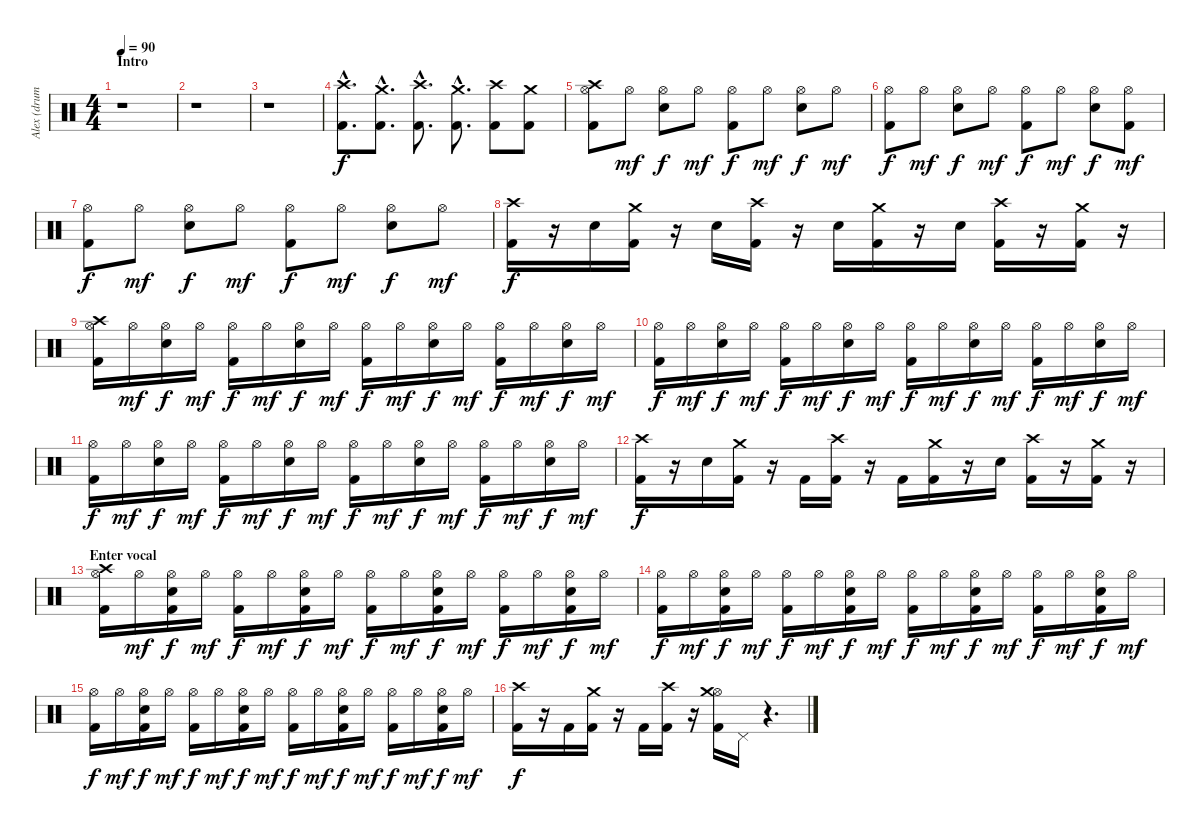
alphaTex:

\track ("Alex (drums)" "Alex (drum") {instrument percussion}
\staff {score}
\articulation defaults
\ts (4 4)
\section ("" "Intro")
\tempo 90
\clef neutral
\ks c
r.1{dy f} |
r.1 |
r.1 |
("Kick (hit) 2"{hac} "Crash high (hit)"{hac}).8{d} ("Kick (hit) 2"{hac} "Crash medium (hit)"{hac}).8{d} ("Kick (hit) 2"{hac} "Crash high (hit)"{hac}).8{d} ("Kick (hit) 2"{hac} "Crash medium (hit)"{hac}).8{d} ("Kick (hit) 2" "Crash high (hit)").8 ("Kick (hit) 2" "Crash medium (hit)").8 |
("Hi-Hat (open)" "Kick (hit) 2" "Crash high (hit)").8 "Hi-Hat (open)".8{dy mf} ("Hi-Hat (open)" "Snare (hit) 2").8{dy f} "Hi-Hat (open)".8{dy mf} ("Hi-Hat (open)" "Kick (hit) 2").8{dy f} "Hi-Hat (open)".8{dy mf} ("Hi-Hat (open)" "Snare (hit) 2").8{dy f} "Hi-Hat (open)".8{dy mf} |
("Hi-Hat (open)" "Kick (hit) 2").8{dy f} "Hi-Hat (open)".8{dy mf} ("Hi-Hat (open)" "Snare (hit) 2").8{dy f} "Hi-Hat (open)".8{dy mf} ("Hi-Hat (open)" "Kick (hit) 2").8{dy f} "Hi-Hat (open)".8{dy mf} ("Hi-Hat (open)" "Snare (hit) 2").8{dy f} ("Hi-Hat (open)" "Kick (hit) 2").8{dy mf} |
("Hi-Hat (open)" "Kick (hit) 2").8{dy f} "Hi-Hat (open)".8{dy mf} ("Hi-Hat (open)" "Snare (hit) 2").8{dy f} "Hi-Hat (open)".8{dy mf} ("Hi-Hat (open)" "Kick (hit) 2").8{dy f} "Hi-Hat (open)".8{dy mf} ("Hi-Hat (open)" "Snare (hit) 2").8{dy f} "Hi-Hat (open)".8{dy mf} |
("Kick (hit) 2" "Crash high (hit)").16{dy f} r.16 "Snare (hit) 2".16 ("Kick (hit) 2" "Crash medium (hit)").16 r.16 "Snare (hit) 2".16 ("Kick (hit) 2" "Crash high (hit)").16 r.16 "Snare (hit) 2".16 ("Kick (hit) 2" "Crash medium (hit)").16 r.16 "Snare (hit) 2".16 ("Kick (hit) 2" "Crash high (hit)").16 r.16 ("Kick (hit) 2" "Crash medium (hit)").16 r.16 |
("Hi-Hat (open)" "Kick (hit) 2" "Crash high (hit)").16 "Hi-Hat (open)".16{dy mf} ("Hi-Hat (open)" "Snare (hit) 2").16{dy f} "Hi-Hat (open)".16{dy mf} ("Hi-Hat (open)" "Kick (hit) 2").16{dy f} "Hi-Hat (open)".16{dy mf} ("Hi-Hat (open)" "Snare (hit) 2").16{dy f} "Hi-Hat (open)".16{dy mf} ("Hi-Hat (open)" "Kick (hit) 2").16{dy f} "Hi-Hat (open)".16{dy mf} ("Hi-Hat (open)" "Snare (hit) 2").16{dy f} "Hi-Hat (open)".16{dy mf} ("Hi-Hat (open)" "Kick (hit) 2").16{dy f} "Hi-Hat (open)".16{dy mf} ("Hi-Hat (open)" "Snare (hit) 2").16{dy f} "Hi-Hat (open)".16{dy mf} |
("Hi-Hat (open)" "Kick (hit) 2").16{dy f} "Hi-Hat (open)".16{dy mf} ("Hi-Hat (open)" "Snare (hit) 2").16{dy f} "Hi-Hat (open)".16{dy mf} ("Hi-Hat (open)" "Kick (hit) 2").16{dy f} "Hi-Hat (open)".16{dy mf} ("Hi-Hat (open)" "Snare (hit) 2").16{dy f} "Hi-Hat (open)".16{dy mf} ("Hi-Hat (open)" "Kick (hit) 2").16{dy f} "Hi-Hat (open)".16{dy mf} ("Hi-Hat (open)" "Snare (hit) 2").16{dy f} "Hi-Hat (open)".16{dy mf} ("Hi-Hat (open)" "Kick (hit) 2").16{dy f} "Hi-Hat (open)".16{dy mf} ("Hi-Hat (open)" "Snare (hit) 2").16{dy f} "Hi-Hat (open)".16{dy mf} |
("Hi-Hat (open)" "Kick (hit) 2").16{dy f} "Hi-Hat (open)".16{dy mf} ("Hi-Hat (open)" "Snare (hit) 2").16{dy f} "Hi-Hat (open)".16{dy mf} ("Hi-Hat (open)" "Kick (hit) 2").16{dy f} "Hi-Hat (open)".16{dy mf} ("Hi-Hat (open)" "Snare (hit) 2").16{dy f} "Hi-Hat (open)".16{dy mf} ("Hi-Hat (open)" "Kick (hit) 2").16{dy f} "Hi-Hat (open)".16{dy mf} ("Hi-Hat (open)" "Snare (hit) 2").16{dy f} "Hi-Hat (open)".16{dy mf} ("Hi-Hat (open)" "Kick (hit) 2").16{dy f} "Hi-Hat (open)".16{dy mf} ("Hi-Hat (open)" "Snare (hit) 2").16{dy f} "Hi-Hat (open)".16{dy mf} |
("Kick (hit) 2" "Crash high (hit)").16{dy f} r.16 "Snare (hit) 2".16 ("Kick (hit) 2" "Crash medium (hit)").16 r.16 "Kick (hit) 2".16 ("Kick (hit) 2" "Crash high (hit)").16 r.16 "Kick (hit) 2".16 ("Kick (hit) 2" "Crash medium (hit)").16 r.16 "Snare (hit) 2".16 ("Kick (hit) 2" "Crash high (hit)").16 r.16 ("Kick (hit) 2" "Crash medium (hit)").16 r.16 |
\section ("" "Enter vocal")
("Hi-Hat (open)" "Kick (hit) 2" "Crash high (hit)").16 "Hi-Hat (open)".16{dy mf} ("Hi-Hat (open)" "Snare (hit) 2" "Kick (hit) 2").16{dy f} "Hi-Hat (open)".16{dy mf} ("Hi-Hat (open)" "Kick (hit) 2").16{dy f} "Hi-Hat (open)".16{dy mf} ("Hi-Hat (open)" "Snare (hit) 2" "Kick (hit) 2").16{dy f} "Hi-Hat (open)".16{dy mf} ("Hi-Hat (open)" "Kick (hit) 2").16{dy f} "Hi-Hat (open)".16{dy mf} ("Hi-Hat (open)" "Snare (hit) 2" "Kick (hit) 2").16{dy f} "Hi-Hat (open)".16{dy mf} ("Hi-Hat (open)" "Kick (hit) 2").16{dy f} "Hi-Hat (open)".16{dy mf} ("Hi-Hat (open)" "Snare (hit) 2" "Kick (hit) 2").16{dy f} "Hi-Hat (open)".16{dy mf} |
("Hi-Hat (open)" "Kick (hit) 2").16{dy f} "Hi-Hat (open)".16{dy mf} ("Hi-Hat (open)" "Snare (hit) 2" "Kick (hit) 2").16{dy f} "Hi-Hat (open)".16{dy mf} ("Hi-Hat (open)" "Kick (hit) 2").16{dy f} "Hi-Hat (open)".16{dy mf} ("Hi-Hat (open)" "Snare (hit) 2" "Kick (hit) 2").16{dy f} "Hi-Hat (open)".16{dy mf} ("Hi-Hat (open)" "Kick (hit) 2").16{dy f} "Hi-Hat (open)".16{dy mf} ("Hi-Hat (open)" "Snare (hit) 2" "Kick (hit) 2").16{dy f} "Hi-Hat (open)".16{dy mf} ("Hi-Hat (open)" "Kick (hit) 2").16{dy f} "Hi-Hat (open)".16{dy mf} ("Hi-Hat (open)" "Snare (hit) 2" "Kick (hit) 2").16{dy f} "Hi-Hat (open)".16{dy mf} |
("Hi-Hat (open)" "Kick (hit) 2").16{dy f} "Hi-Hat (open)".16{dy mf} ("Hi-Hat (open)" "Snare (hit) 2" "Kick (hit) 2").16{dy f} "Hi-Hat (open)".16{dy mf} ("Hi-Hat (open)" "Kick (hit) 2").16{dy f} "Hi-Hat (open)".16{dy mf} ("Hi-Hat (open)" "Snare (hit) 2" "Kick (hit) 2").16{dy f} "Hi-Hat (open)".16{dy mf} ("Hi-Hat (open)" "Kick (hit) 2").16{dy f} "Hi-Hat (open)".16{dy mf} ("Hi-Hat (open)" "Snare (hit) 2" "Kick (hit) 2").16{dy f} "Hi-Hat (open)".16{dy mf} ("Hi-Hat (open)" "Kick (hit) 2").16{dy f} "Hi-Hat (open)".16{dy mf} ("Hi-Hat (open)" "Snare (hit) 2" "Kick (hit) 2").16{dy f} "Hi-Hat (open)".16{dy mf} |
("Kick (hit) 2" "Crash high (hit)").16{dy f} r.16 "Kick (hit) 2".16 ("Kick (hit) 2" "Crash medium (hit)").16 r.16 "Kick (hit) 2".16 ("Kick (hit) 2" "Crash high (hit)").16 r.16 ("Hi-Hat (open)" "Kick (hit) 2" "Crash medium (hit)").16 "Pedal Hi-Hat (hit)".16 r.4{d}
